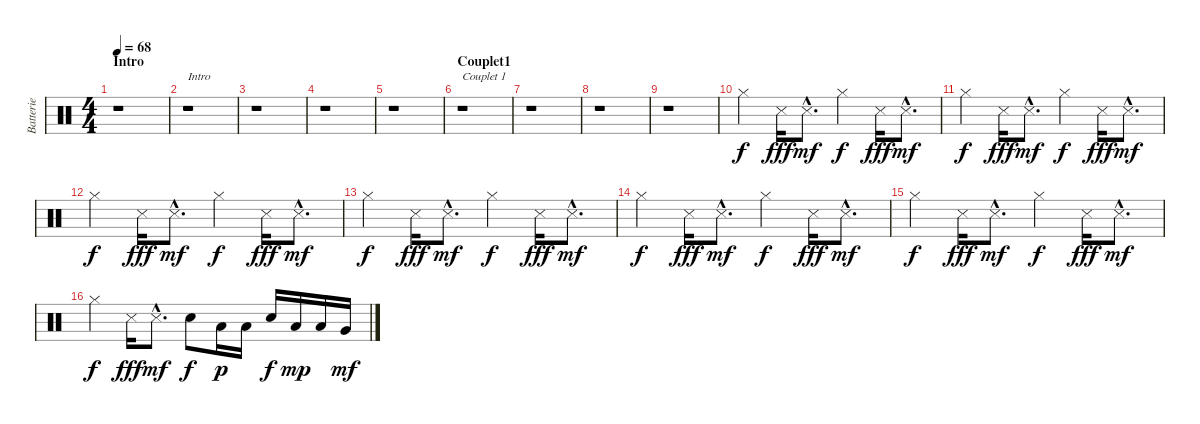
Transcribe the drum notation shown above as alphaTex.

\track ("Batterie" "Batterie") {instrument percussion}
\staff {score}
\articulation defaults
\ts (4 4)
\section ("" "Intro")
\tempo 68
\clef neutral
\ks c
r.1{dy f} |
r.1{txt "Intro"} |
r.1 |
r.1 |
r.1 |
\section ("" "Couplet1")
r.1{txt "Couplet 1"} |
r.1 |
r.1 |
r.1 |
"Hi-Hat (closed)".4{txt ""} "Snare (side stick) 3".16{dy fff} "Snare (side stick) 3"{hac}.8{d dy mf} "Hi-Hat (closed)".4{dy f} "Snare (side stick) 3".16{dy fff} "Snare (side stick) 3"{hac}.8{d dy mf} |
"Hi-Hat (closed)".4{dy f} "Snare (side stick) 3".16{dy fff} "Snare (side stick) 3"{hac}.8{d dy mf} "Hi-Hat (closed)".4{dy f} "Snare (side stick) 3".16{dy fff} "Snare (side stick) 3"{hac}.8{d dy mf} |
"Hi-Hat (closed)".4{dy f} "Snare (side stick) 3".16{dy fff} "Snare (side stick) 3"{hac}.8{d dy mf} "Hi-Hat (closed)".4{dy f} "Snare (side stick) 3".16{dy fff} "Snare (side stick) 3"{hac}.8{d dy mf} |
\section ("" "")
"Hi-Hat (closed)".4{txt "" dy f} "Snare (side stick) 3".16{dy fff} "Snare (side stick) 3"{hac}.8{d dy mf} "Hi-Hat (closed)".4{dy f} "Snare (side stick) 3".16{dy fff} "Snare (side stick) 3"{hac}.8{d dy mf} |
"Hi-Hat (closed)".4{dy f} "Snare (side stick) 3".16{dy fff} "Snare (side stick) 3"{hac}.8{d dy mf} "Hi-Hat (closed)".4{dy f} "Snare (side stick) 3".16{dy fff} "Snare (side stick) 3"{hac}.8{d dy mf} |
"Hi-Hat (closed)".4{dy f} "Snare (side stick) 3".16{dy fff} "Snare (side stick) 3"{hac}.8{d dy mf} "Hi-Hat (closed)".4{dy f} "Snare (side stick) 3".16{dy fff} "Snare (side stick) 3"{hac}.8{d dy mf} |
"Hi-Hat (closed)".4{dy f} "Snare (side stick) 3".16{dy fff} "Snare (side stick) 3"{hac}.8{d dy mf} "Electric Snare (hit)".8{dy f} "Low Tom (hit)".16{dy p} "Low Tom (hit)".16 "Electric Snare (hit)".16{dy f} "Low Tom (hit)".16{dy mp} "Low Tom (hit)".16 "Very Low Tom (hit)".16{dy mf}
